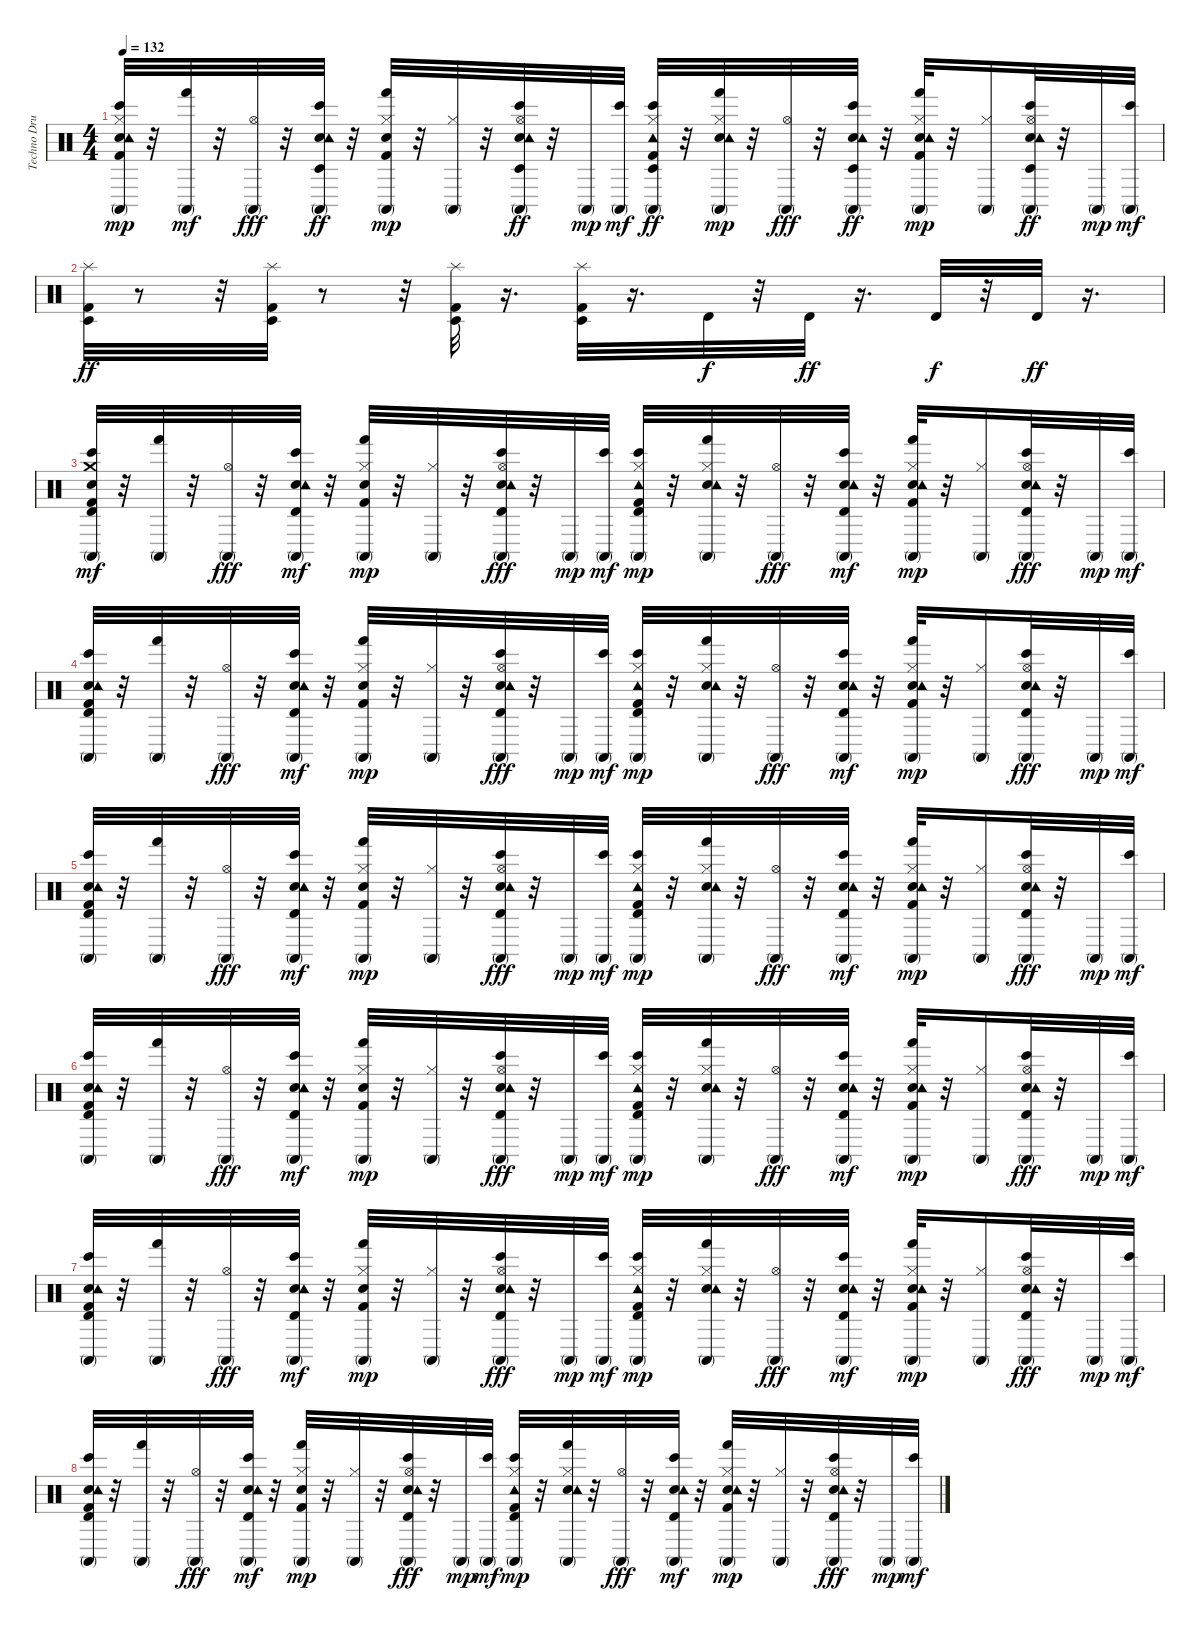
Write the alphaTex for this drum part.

\track ("Techno Drums" "Techno Dru") {instrument percussion}
\staff {score}
\articulation defaults
\ts (4 4)
\tempo 132
\clef neutral
\ks c
("Kick (hit) 2" "Hand Clap (hit)" "Tambourine (hit)" "Conga high (mute)" "Bongo High (hit)" "Hi-Hat (closed)").32{dy mp} r.32 ("Conga high (mute)" "Hand (hit)").32{dy mf} r.32 ("Conga high (mute)" "Hi-Hat (open)").32{dy fff} r.32 ("Hand Clap (hit)" "Tambourine (hit)" "Conga high (mute)" "Bongo High (hit)" "Timbale low (hit)").32{dy ff} r.32 ("Kick (hit) 2" "Hand Clap (hit)" "Conga high (mute)" "Hand (hit)" "Hi-Hat (closed)").32{dy mp} r.32 ("Conga high (mute)" "Hi-Hat (closed)").32 r.32 ("Hand Clap (hit)" "Tambourine (hit)" "Conga high (mute)" "Bongo High (hit)" "Hi-Hat (open)" "Timbale low (hit)").32{dy ff} r.32 "Conga high (mute)".32{dy mp} ("Conga high (mute)" "Bongo High (hit)").32{dy mf} ("Kick (hit) 2" "Tambourine (hit)" "Conga high (mute)" "Bongo High (hit)" "Hi-Hat (closed)" "Timbale low (hit)").32{dy ff} r.32 ("Hand Clap (hit)" "Tambourine (hit)" "Conga high (mute)" "Hand (hit)" "Hi-Hat (closed)").32{dy mp} r.32 ("Conga high (mute)" "Hi-Hat (open)").32{dy fff} r.32 ("Hand Clap (hit)" "Tambourine (hit)" "Conga high (mute)" "Bongo High (hit)" "Timbale low (hit)").32{dy ff} r.32 ("Kick (hit) 2" "Hand Clap (hit)" "Tambourine (hit)" "Conga high (mute)" "Hand (hit)" "Hi-Hat (closed)").32{dy mp} r.32 ("Conga high (mute)" "Hi-Hat (closed)").16 ("Hand Clap (hit)" "Tambourine (hit)" "Conga high (mute)" "Bongo High (hit)" "Hi-Hat (open)" "Timbale low (hit)").32{dy ff} r.32 "Conga high (mute)".32{dy mp} ("Conga high (mute)" "Bongo High (hit)").32{dy mf} |
("Kick (hit) 2" "Timbale low (hit)" "Splash (hit)").32{dy ff} r.8 r.32 ("Kick (hit) 2" "Timbale low (hit)" "Splash (hit)").32 r.8 r.32 ("Kick (hit) 2" "Timbale low (hit)" "Splash (hit)").32 r.16{d} ("Timbale low (hit)" "Splash (hit)" "Kick (hit) 2").32 r.16{d} "Timbale high (hit)".32{dy f} r.32 "Timbale high (hit)".32{dy ff} r.16{d} "Timbale high (hit)".32{dy f} r.32 "Timbale high (hit)".32{dy ff} r.16{d} |
("Kick (hit) 2" "Hand Clap (hit)" "Crash medium (hit)" "Conga high (mute)" "Bongo High (hit)" "Timbale high (hit)").32{dy mf} r.32 ("Conga high (mute)" "Hand (hit)").32 r.32 ("Conga high (mute)" "Hi-Hat (open)").32{dy fff} r.32 ("Hand Clap (hit)" "Tambourine (hit)" "Conga high (mute)" "Bongo High (hit)" "Timbale high (hit)").32{dy mf} r.32 ("Kick (hit) 2" "Hand Clap (hit)" "Conga high (mute)" "Hand (hit)" "Hi-Hat (closed)").32{dy mp} r.32 ("Conga high (mute)" "Hi-Hat (closed)").32 r.32 ("Hand Clap (hit)" "Tambourine (hit)" "Conga high (mute)" "Bongo High (hit)" "Timbale high (hit)" "Hi-Hat (open)").32{dy fff} r.32 "Conga high (mute)".32{dy mp} ("Conga high (mute)" "Bongo High (hit)").32{dy mf} ("Kick (hit) 2" "Tambourine (hit)" "Conga high (mute)" "Bongo High (hit)" "Timbale high (hit)" "Hi-Hat (closed)").32{dy mp} r.32 ("Hand Clap (hit)" "Tambourine (hit)" "Conga high (mute)" "Hand (hit)" "Hi-Hat (closed)").32 r.32 ("Conga high (mute)" "Hi-Hat (open)").32{dy fff} r.32 ("Hand Clap (hit)" "Tambourine (hit)" "Conga high (mute)" "Bongo High (hit)" "Timbale high (hit)").32{dy mf} r.32 ("Kick (hit) 2" "Hand Clap (hit)" "Tambourine (hit)" "Conga high (mute)" "Hand (hit)" "Hi-Hat (closed)").32{dy mp} r.32 ("Conga high (mute)" "Hi-Hat (closed)").16 ("Hand Clap (hit)" "Tambourine (hit)" "Conga high (mute)" "Bongo High (hit)" "Timbale high (hit)" "Hi-Hat (open)").32{dy fff} r.32 "Conga high (mute)".32{dy mp} ("Conga high (mute)" "Bongo High (hit)").32{dy mf} |
("Kick (hit) 2" "Hand Clap (hit)" "Tambourine (hit)" "Conga high (mute)" "Bongo High (hit)" "Timbale high (hit)").32 r.32 ("Conga high (mute)" "Hand (hit)").32 r.32 ("Conga high (mute)" "Hi-Hat (open)").32{dy fff} r.32 ("Hand Clap (hit)" "Tambourine (hit)" "Conga high (mute)" "Bongo High (hit)" "Timbale high (hit)").32{dy mf} r.32 ("Kick (hit) 2" "Hand Clap (hit)" "Conga high (mute)" "Hand (hit)" "Hi-Hat (closed)").32{dy mp} r.32 ("Conga high (mute)" "Hi-Hat (closed)").32 r.32 ("Hand Clap (hit)" "Tambourine (hit)" "Conga high (mute)" "Bongo High (hit)" "Timbale high (hit)" "Hi-Hat (open)").32{dy fff} r.32 "Conga high (mute)".32{dy mp} ("Conga high (mute)" "Bongo High (hit)").32{dy mf} ("Kick (hit) 2" "Tambourine (hit)" "Conga high (mute)" "Bongo High (hit)" "Timbale high (hit)" "Hi-Hat (closed)").32{dy mp} r.32 ("Hand Clap (hit)" "Tambourine (hit)" "Conga high (mute)" "Hand (hit)" "Hi-Hat (closed)").32 r.32 ("Conga high (mute)" "Hi-Hat (open)").32{dy fff} r.32 ("Hand Clap (hit)" "Tambourine (hit)" "Conga high (mute)" "Bongo High (hit)" "Timbale high (hit)").32{dy mf} r.32 ("Kick (hit) 2" "Hand Clap (hit)" "Tambourine (hit)" "Conga high (mute)" "Hand (hit)" "Hi-Hat (closed)").32{dy mp} r.32 ("Conga high (mute)" "Hi-Hat (closed)").16 ("Hand Clap (hit)" "Tambourine (hit)" "Conga high (mute)" "Bongo High (hit)" "Timbale high (hit)" "Hi-Hat (open)").32{dy fff} r.32 "Conga high (mute)".32{dy mp} ("Conga high (mute)" "Bongo High (hit)").32{dy mf} |
("Kick (hit) 2" "Hand Clap (hit)" "Tambourine (hit)" "Conga high (mute)" "Bongo High (hit)" "Timbale high (hit)").32 r.32 ("Conga high (mute)" "Hand (hit)").32 r.32 ("Conga high (mute)" "Hi-Hat (open)").32{dy fff} r.32 ("Hand Clap (hit)" "Tambourine (hit)" "Conga high (mute)" "Bongo High (hit)" "Timbale high (hit)").32{dy mf} r.32 ("Kick (hit) 2" "Hand Clap (hit)" "Conga high (mute)" "Hand (hit)" "Hi-Hat (closed)").32{dy mp} r.32 ("Conga high (mute)" "Hi-Hat (closed)").32 r.32 ("Hand Clap (hit)" "Tambourine (hit)" "Conga high (mute)" "Bongo High (hit)" "Timbale high (hit)" "Hi-Hat (open)").32{dy fff} r.32 "Conga high (mute)".32{dy mp} ("Conga high (mute)" "Bongo High (hit)").32{dy mf} ("Kick (hit) 2" "Tambourine (hit)" "Conga high (mute)" "Bongo High (hit)" "Timbale high (hit)" "Hi-Hat (closed)").32{dy mp} r.32 ("Hand Clap (hit)" "Tambourine (hit)" "Conga high (mute)" "Hand (hit)" "Hi-Hat (closed)").32 r.32 ("Conga high (mute)" "Hi-Hat (open)").32{dy fff} r.32 ("Hand Clap (hit)" "Tambourine (hit)" "Conga high (mute)" "Bongo High (hit)" "Timbale high (hit)").32{dy mf} r.32 ("Kick (hit) 2" "Hand Clap (hit)" "Tambourine (hit)" "Conga high (mute)" "Hand (hit)" "Hi-Hat (closed)").32{dy mp} r.32 ("Conga high (mute)" "Hi-Hat (closed)").16 ("Hand Clap (hit)" "Tambourine (hit)" "Conga high (mute)" "Bongo High (hit)" "Timbale high (hit)" "Hi-Hat (open)").32{dy fff} r.32 "Conga high (mute)".32{dy mp} ("Conga high (mute)" "Bongo High (hit)").32{dy mf} |
("Kick (hit) 2" "Hand Clap (hit)" "Tambourine (hit)" "Conga high (mute)" "Bongo High (hit)" "Timbale high (hit)").32 r.32 ("Conga high (mute)" "Hand (hit)").32 r.32 ("Conga high (mute)" "Hi-Hat (open)").32{dy fff} r.32 ("Hand Clap (hit)" "Tambourine (hit)" "Conga high (mute)" "Bongo High (hit)" "Timbale high (hit)").32{dy mf} r.32 ("Kick (hit) 2" "Hand Clap (hit)" "Conga high (mute)" "Hand (hit)" "Hi-Hat (closed)").32{dy mp} r.32 ("Conga high (mute)" "Hi-Hat (closed)").32 r.32 ("Hand Clap (hit)" "Tambourine (hit)" "Conga high (mute)" "Bongo High (hit)" "Timbale high (hit)" "Hi-Hat (open)").32{dy fff} r.32 "Conga high (mute)".32{dy mp} ("Conga high (mute)" "Bongo High (hit)").32{dy mf} ("Kick (hit) 2" "Tambourine (hit)" "Conga high (mute)" "Bongo High (hit)" "Timbale high (hit)" "Hi-Hat (closed)").32{dy mp} r.32 ("Hand Clap (hit)" "Tambourine (hit)" "Conga high (mute)" "Hand (hit)" "Hi-Hat (closed)").32 r.32 ("Conga high (mute)" "Hi-Hat (open)").32{dy fff} r.32 ("Hand Clap (hit)" "Tambourine (hit)" "Conga high (mute)" "Bongo High (hit)" "Timbale high (hit)").32{dy mf} r.32 ("Kick (hit) 2" "Hand Clap (hit)" "Tambourine (hit)" "Conga high (mute)" "Hand (hit)" "Hi-Hat (closed)").32{dy mp} r.32 ("Conga high (mute)" "Hi-Hat (closed)").16 ("Hand Clap (hit)" "Tambourine (hit)" "Conga high (mute)" "Bongo High (hit)" "Timbale high (hit)" "Hi-Hat (open)").32{dy fff} r.32 "Conga high (mute)".32{dy mp} ("Conga high (mute)" "Bongo High (hit)").32{dy mf} |
("Kick (hit) 2" "Hand Clap (hit)" "Tambourine (hit)" "Conga high (mute)" "Bongo High (hit)" "Timbale high (hit)").32 r.32 ("Conga high (mute)" "Hand (hit)").32 r.32 ("Conga high (mute)" "Hi-Hat (open)").32{dy fff} r.32 ("Hand Clap (hit)" "Tambourine (hit)" "Conga high (mute)" "Bongo High (hit)" "Timbale high (hit)").32{dy mf} r.32 ("Kick (hit) 2" "Hand Clap (hit)" "Conga high (mute)" "Hand (hit)" "Hi-Hat (closed)").32{dy mp} r.32 ("Conga high (mute)" "Hi-Hat (closed)").32 r.32 ("Hand Clap (hit)" "Tambourine (hit)" "Conga high (mute)" "Bongo High (hit)" "Timbale high (hit)" "Hi-Hat (open)").32{dy fff} r.32 "Conga high (mute)".32{dy mp} ("Conga high (mute)" "Bongo High (hit)").32{dy mf} ("Kick (hit) 2" "Tambourine (hit)" "Conga high (mute)" "Bongo High (hit)" "Timbale high (hit)" "Hi-Hat (closed)").32{dy mp} r.32 ("Hand Clap (hit)" "Tambourine (hit)" "Conga high (mute)" "Hand (hit)" "Hi-Hat (closed)").32 r.32 ("Conga high (mute)" "Hi-Hat (open)").32{dy fff} r.32 ("Hand Clap (hit)" "Tambourine (hit)" "Conga high (mute)" "Bongo High (hit)" "Timbale high (hit)").32{dy mf} r.32 ("Kick (hit) 2" "Hand Clap (hit)" "Tambourine (hit)" "Conga high (mute)" "Hand (hit)" "Hi-Hat (closed)").32{dy mp} r.32 ("Conga high (mute)" "Hi-Hat (closed)").16 ("Hand Clap (hit)" "Tambourine (hit)" "Conga high (mute)" "Bongo High (hit)" "Timbale high (hit)" "Hi-Hat (open)").32{dy fff} r.32 "Conga high (mute)".32{dy mp} ("Conga high (mute)" "Bongo High (hit)").32{dy mf} |
("Kick (hit) 2" "Hand Clap (hit)" "Tambourine (hit)" "Conga high (mute)" "Bongo High (hit)" "Timbale high (hit)").32 r.32 ("Conga high (mute)" "Hand (hit)").32 r.32 ("Conga high (mute)" "Hi-Hat (open)").32{dy fff} r.32 ("Hand Clap (hit)" "Tambourine (hit)" "Conga high (mute)" "Bongo High (hit)" "Timbale high (hit)").32{dy mf} r.32 ("Kick (hit) 2" "Hand Clap (hit)" "Conga high (mute)" "Hand (hit)" "Hi-Hat (closed)").32{dy mp} r.32 ("Conga high (mute)" "Hi-Hat (closed)").32 r.32 ("Hand Clap (hit)" "Tambourine (hit)" "Conga high (mute)" "Bongo High (hit)" "Timbale high (hit)" "Hi-Hat (open)").32{dy fff} r.32 "Conga high (mute)".32{dy mp} ("Conga high (mute)" "Bongo High (hit)").32{dy mf} ("Kick (hit) 2" "Tambourine (hit)" "Conga high (mute)" "Bongo High (hit)" "Timbale high (hit)" "Hi-Hat (closed)").32{dy mp} r.32 ("Hand Clap (hit)" "Tambourine (hit)" "Conga high (mute)" "Hand (hit)" "Hi-Hat (closed)").32 r.32 ("Conga high (mute)" "Hi-Hat (open)").32{dy fff} r.32 ("Hand Clap (hit)" "Tambourine (hit)" "Conga high (mute)" "Bongo High (hit)" "Timbale high (hit)").32{dy mf} r.32 ("Kick (hit) 2" "Hand Clap (hit)" "Tambourine (hit)" "Conga high (mute)" "Hand (hit)" "Hi-Hat (closed)").32{dy mp} r.32 ("Conga high (mute)" "Hi-Hat (closed)").32 r.32 ("Hand Clap (hit)" "Tambourine (hit)" "Conga high (mute)" "Bongo High (hit)" "Timbale high (hit)" "Hi-Hat (open)").32{dy fff} r.32 "Conga high (mute)".32{dy mp} ("Conga high (mute)" "Bongo High (hit)").32{dy mf}
